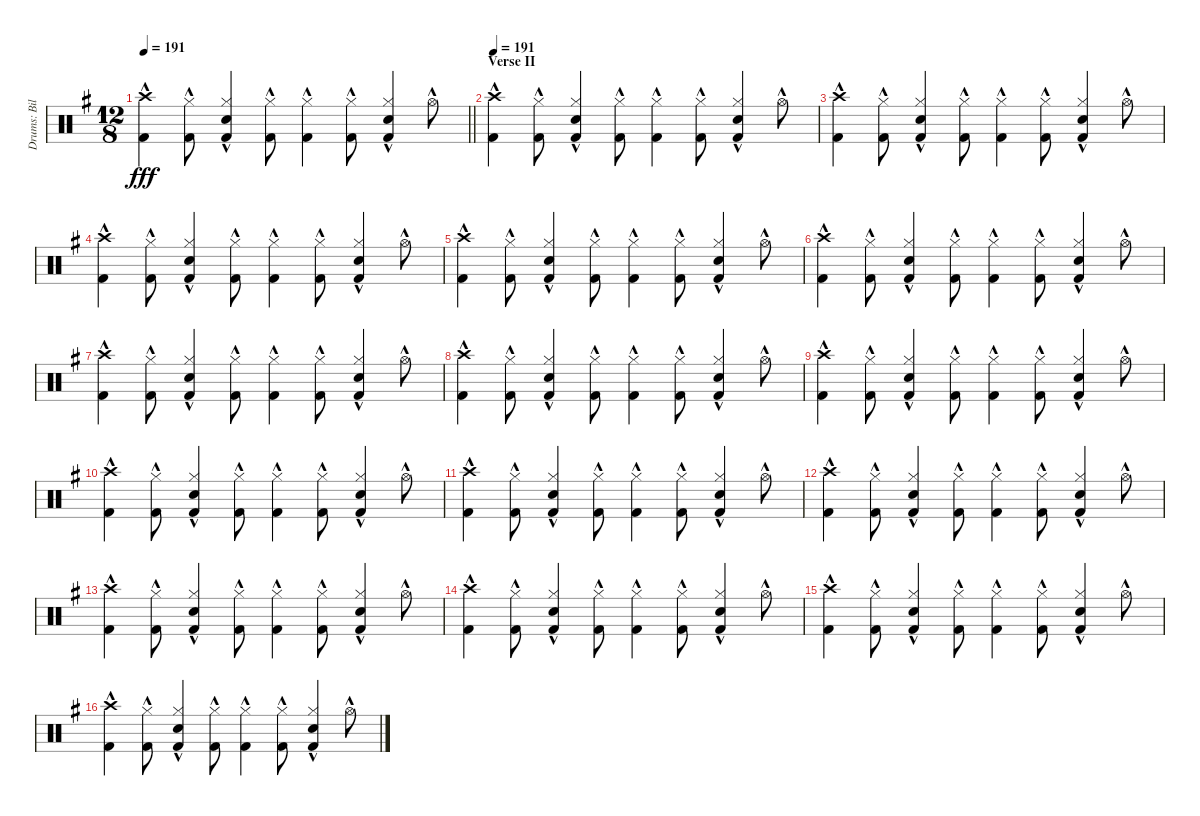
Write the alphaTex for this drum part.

\track ("Drums: Bill" "Drums: Bil") {instrument percussion}
\staff {score}
\articulation defaults
\ts (12 8)
\tempo 191
\clef neutral
\barLineRight lightlight
\ks g
("Crash high (hit)"{hac} "Kick (hit) 2"{hac}).4{dy fff} ("Hi-Hat (closed)"{hac} "Kick (hit) 2"{hac}).8 ("Hi-Hat (closed)"{hac} "Snare (hit) 2"{hac} "Kick (hit) 2"{hac}).4 ("Hi-Hat (closed)"{hac} "Kick (hit) 2"{hac}).8 ("Hi-Hat (closed)"{hac} "Kick (hit) 2"{hac}).4 ("Hi-Hat (closed)"{hac} "Kick (hit) 2"{hac}).8 ("Hi-Hat (closed)"{hac} "Snare (hit) 2"{hac} "Kick (hit) 2"{hac}).4 "Hi-Hat (open)"{hac}.8 |
\section ("" "Verse II")
\tempo 191
("Crash high (hit)"{hac} "Kick (hit) 2"{hac}).4 ("Hi-Hat (closed)"{hac} "Kick (hit) 2"{hac}).8 ("Hi-Hat (closed)"{hac} "Snare (hit) 2"{hac} "Kick (hit) 2"{hac}).4 ("Hi-Hat (closed)"{hac} "Kick (hit) 2"{hac}).8 ("Hi-Hat (closed)"{hac} "Kick (hit) 2"{hac}).4 ("Hi-Hat (closed)"{hac} "Kick (hit) 2"{hac}).8 ("Hi-Hat (closed)"{hac} "Snare (hit) 2"{hac} "Kick (hit) 2"{hac}).4 "Hi-Hat (open)"{hac}.8 |
("Crash high (hit)"{hac} "Kick (hit) 2"{hac}).4 ("Hi-Hat (closed)"{hac} "Kick (hit) 2"{hac}).8 ("Hi-Hat (closed)"{hac} "Snare (hit) 2"{hac} "Kick (hit) 2"{hac}).4 ("Hi-Hat (closed)"{hac} "Kick (hit) 2"{hac}).8 ("Hi-Hat (closed)"{hac} "Kick (hit) 2"{hac}).4 ("Hi-Hat (closed)"{hac} "Kick (hit) 2"{hac}).8 ("Hi-Hat (closed)"{hac} "Snare (hit) 2"{hac} "Kick (hit) 2"{hac}).4 "Hi-Hat (open)"{hac}.8 |
("Crash high (hit)"{hac} "Kick (hit) 2"{hac}).4 ("Hi-Hat (closed)"{hac} "Kick (hit) 2"{hac}).8 ("Hi-Hat (closed)"{hac} "Snare (hit) 2"{hac} "Kick (hit) 2"{hac}).4 ("Hi-Hat (closed)"{hac} "Kick (hit) 2"{hac}).8 ("Hi-Hat (closed)"{hac} "Kick (hit) 2"{hac}).4 ("Hi-Hat (closed)"{hac} "Kick (hit) 2"{hac}).8 ("Hi-Hat (closed)"{hac} "Snare (hit) 2"{hac} "Kick (hit) 2"{hac}).4 "Hi-Hat (open)"{hac}.8 |
("Crash high (hit)"{hac} "Kick (hit) 2"{hac}).4 ("Hi-Hat (closed)"{hac} "Kick (hit) 2"{hac}).8 ("Hi-Hat (closed)"{hac} "Snare (hit) 2"{hac} "Kick (hit) 2"{hac}).4 ("Hi-Hat (closed)"{hac} "Kick (hit) 2"{hac}).8 ("Hi-Hat (closed)"{hac} "Kick (hit) 2"{hac}).4 ("Hi-Hat (closed)"{hac} "Kick (hit) 2"{hac}).8 ("Hi-Hat (closed)"{hac} "Snare (hit) 2"{hac} "Kick (hit) 2"{hac}).4 "Hi-Hat (open)"{hac}.8 |
("Crash high (hit)"{hac} "Kick (hit) 2"{hac}).4 ("Hi-Hat (closed)"{hac} "Kick (hit) 2"{hac}).8 ("Hi-Hat (closed)"{hac} "Snare (hit) 2"{hac} "Kick (hit) 2"{hac}).4 ("Hi-Hat (closed)"{hac} "Kick (hit) 2"{hac}).8 ("Hi-Hat (closed)"{hac} "Kick (hit) 2"{hac}).4 ("Hi-Hat (closed)"{hac} "Kick (hit) 2"{hac}).8 ("Hi-Hat (closed)"{hac} "Snare (hit) 2"{hac} "Kick (hit) 2"{hac}).4 "Hi-Hat (open)"{hac}.8 |
("Crash high (hit)"{hac} "Kick (hit) 2"{hac}).4 ("Hi-Hat (closed)"{hac} "Kick (hit) 2"{hac}).8 ("Hi-Hat (closed)"{hac} "Snare (hit) 2"{hac} "Kick (hit) 2"{hac}).4 ("Hi-Hat (closed)"{hac} "Kick (hit) 2"{hac}).8 ("Hi-Hat (closed)"{hac} "Kick (hit) 2"{hac}).4 ("Hi-Hat (closed)"{hac} "Kick (hit) 2"{hac}).8 ("Hi-Hat (closed)"{hac} "Snare (hit) 2"{hac} "Kick (hit) 2"{hac}).4 "Hi-Hat (open)"{hac}.8 |
("Crash high (hit)"{hac} "Kick (hit) 2"{hac}).4 ("Hi-Hat (closed)"{hac} "Kick (hit) 2"{hac}).8 ("Hi-Hat (closed)"{hac} "Snare (hit) 2"{hac} "Kick (hit) 2"{hac}).4 ("Hi-Hat (closed)"{hac} "Kick (hit) 2"{hac}).8 ("Hi-Hat (closed)"{hac} "Kick (hit) 2"{hac}).4 ("Hi-Hat (closed)"{hac} "Kick (hit) 2"{hac}).8 ("Hi-Hat (closed)"{hac} "Snare (hit) 2"{hac} "Kick (hit) 2"{hac}).4 "Hi-Hat (open)"{hac}.8 |
("Crash high (hit)"{hac} "Kick (hit) 2"{hac}).4 ("Hi-Hat (closed)"{hac} "Kick (hit) 2"{hac}).8 ("Hi-Hat (closed)"{hac} "Snare (hit) 2"{hac} "Kick (hit) 2"{hac}).4 ("Hi-Hat (closed)"{hac} "Kick (hit) 2"{hac}).8 ("Hi-Hat (closed)"{hac} "Kick (hit) 2"{hac}).4 ("Hi-Hat (closed)"{hac} "Kick (hit) 2"{hac}).8 ("Hi-Hat (closed)"{hac} "Snare (hit) 2"{hac} "Kick (hit) 2"{hac}).4 "Hi-Hat (open)"{hac}.8 |
("Crash high (hit)"{hac} "Kick (hit) 2"{hac}).4 ("Hi-Hat (closed)"{hac} "Kick (hit) 2"{hac}).8 ("Hi-Hat (closed)"{hac} "Snare (hit) 2"{hac} "Kick (hit) 2"{hac}).4 ("Hi-Hat (closed)"{hac} "Kick (hit) 2"{hac}).8 ("Hi-Hat (closed)"{hac} "Kick (hit) 2"{hac}).4 ("Hi-Hat (closed)"{hac} "Kick (hit) 2"{hac}).8 ("Hi-Hat (closed)"{hac} "Snare (hit) 2"{hac} "Kick (hit) 2"{hac}).4 "Hi-Hat (open)"{hac}.8 |
("Crash high (hit)"{hac} "Kick (hit) 2"{hac}).4 ("Hi-Hat (closed)"{hac} "Kick (hit) 2"{hac}).8 ("Hi-Hat (closed)"{hac} "Snare (hit) 2"{hac} "Kick (hit) 2"{hac}).4 ("Hi-Hat (closed)"{hac} "Kick (hit) 2"{hac}).8 ("Hi-Hat (closed)"{hac} "Kick (hit) 2"{hac}).4 ("Hi-Hat (closed)"{hac} "Kick (hit) 2"{hac}).8 ("Hi-Hat (closed)"{hac} "Snare (hit) 2"{hac} "Kick (hit) 2"{hac}).4 "Hi-Hat (open)"{hac}.8 |
("Crash high (hit)"{hac} "Kick (hit) 2"{hac}).4 ("Hi-Hat (closed)"{hac} "Kick (hit) 2"{hac}).8 ("Hi-Hat (closed)"{hac} "Snare (hit) 2"{hac} "Kick (hit) 2"{hac}).4 ("Hi-Hat (closed)"{hac} "Kick (hit) 2"{hac}).8 ("Hi-Hat (closed)"{hac} "Kick (hit) 2"{hac}).4 ("Hi-Hat (closed)"{hac} "Kick (hit) 2"{hac}).8 ("Hi-Hat (closed)"{hac} "Snare (hit) 2"{hac} "Kick (hit) 2"{hac}).4 "Hi-Hat (open)"{hac}.8 |
("Crash high (hit)"{hac} "Kick (hit) 2"{hac}).4 ("Hi-Hat (closed)"{hac} "Kick (hit) 2"{hac}).8 ("Hi-Hat (closed)"{hac} "Snare (hit) 2"{hac} "Kick (hit) 2"{hac}).4 ("Hi-Hat (closed)"{hac} "Kick (hit) 2"{hac}).8 ("Hi-Hat (closed)"{hac} "Kick (hit) 2"{hac}).4 ("Hi-Hat (closed)"{hac} "Kick (hit) 2"{hac}).8 ("Hi-Hat (closed)"{hac} "Snare (hit) 2"{hac} "Kick (hit) 2"{hac}).4 "Hi-Hat (open)"{hac}.8 |
("Crash high (hit)"{hac} "Kick (hit) 2"{hac}).4 ("Hi-Hat (closed)"{hac} "Kick (hit) 2"{hac}).8 ("Hi-Hat (closed)"{hac} "Snare (hit) 2"{hac} "Kick (hit) 2"{hac}).4 ("Hi-Hat (closed)"{hac} "Kick (hit) 2"{hac}).8 ("Hi-Hat (closed)"{hac} "Kick (hit) 2"{hac}).4 ("Hi-Hat (closed)"{hac} "Kick (hit) 2"{hac}).8 ("Hi-Hat (closed)"{hac} "Snare (hit) 2"{hac} "Kick (hit) 2"{hac}).4 "Hi-Hat (open)"{hac}.8 |
("Crash high (hit)"{hac} "Kick (hit) 2"{hac}).4 ("Hi-Hat (closed)"{hac} "Kick (hit) 2"{hac}).8 ("Hi-Hat (closed)"{hac} "Snare (hit) 2"{hac} "Kick (hit) 2"{hac}).4 ("Hi-Hat (closed)"{hac} "Kick (hit) 2"{hac}).8 ("Hi-Hat (closed)"{hac} "Kick (hit) 2"{hac}).4 ("Hi-Hat (closed)"{hac} "Kick (hit) 2"{hac}).8 ("Hi-Hat (closed)"{hac} "Snare (hit) 2"{hac} "Kick (hit) 2"{hac}).4 "Hi-Hat (open)"{hac}.8 |
("Crash high (hit)"{hac} "Kick (hit) 2"{hac}).4 ("Hi-Hat (closed)"{hac} "Kick (hit) 2"{hac}).8 ("Hi-Hat (closed)"{hac} "Snare (hit) 2"{hac} "Kick (hit) 2"{hac}).4 ("Hi-Hat (closed)"{hac} "Kick (hit) 2"{hac}).8 ("Hi-Hat (closed)"{hac} "Kick (hit) 2"{hac}).4 ("Hi-Hat (closed)"{hac} "Kick (hit) 2"{hac}).8 ("Hi-Hat (closed)"{hac} "Snare (hit) 2"{hac} "Kick (hit) 2"{hac}).4 "Hi-Hat (open)"{hac}.8
